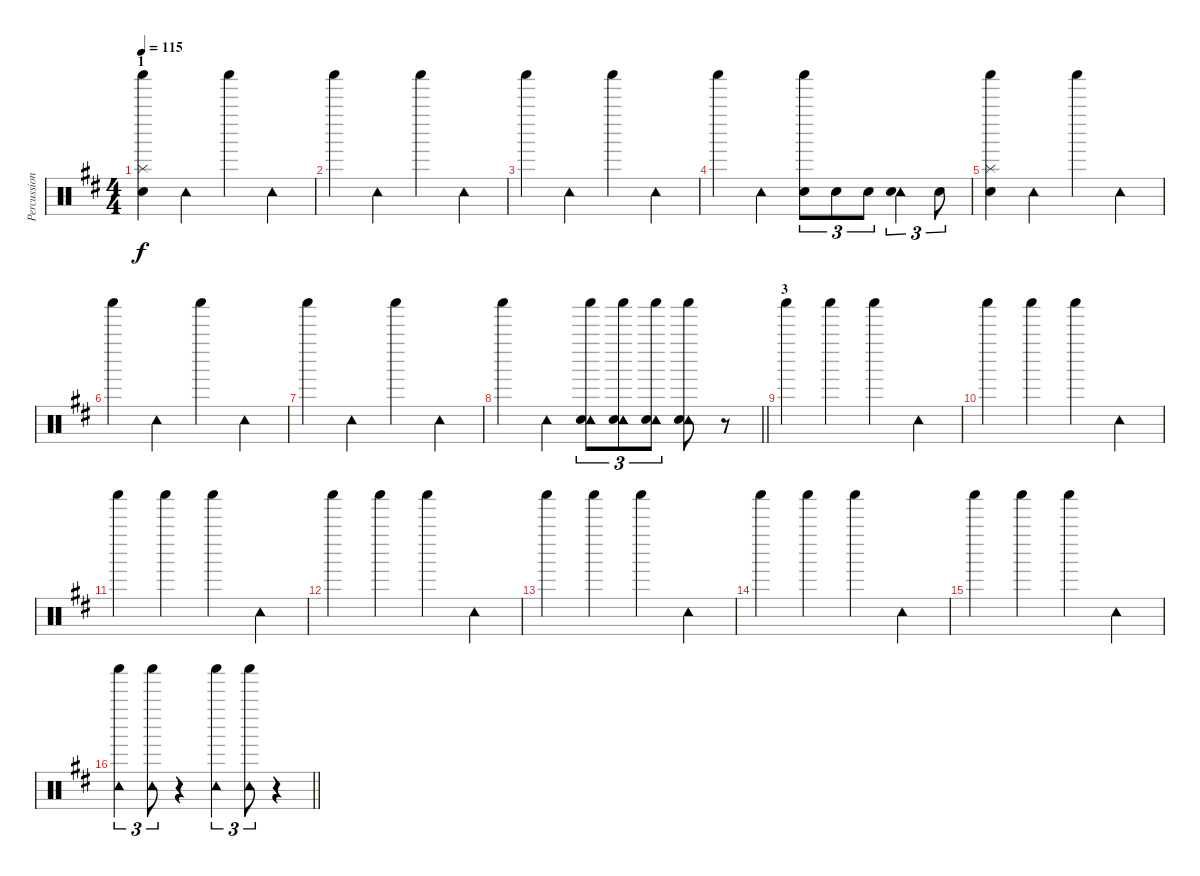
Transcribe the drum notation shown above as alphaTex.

\track ("Percussion" "Percussion") {instrument percussion}
\staff {score}
\articulation defaults
\ts (4 4)
\section ("" "1")
\tempo 115
\clef neutral
\ks d
("Splash (hit)" "Shaker (hit)" "Snare (hit) 2").4{dy f} "Tambourine (hit)".4 "Shaker (hit)".4 "Tambourine (hit)".4 |
"Shaker (hit)".4 "Tambourine (hit)".4 "Shaker (hit)".4 "Tambourine (hit)".4 |
"Shaker (hit)".4 "Tambourine (hit)".4 "Shaker (hit)".4 "Tambourine (hit)".4 |
"Shaker (hit)".4 "Tambourine (hit)".4 ("Shaker (hit)" "Snare (hit) 2").8{tu (3 2)} "Snare (hit) 2".8{tu (3 2)} "Snare (hit) 2".8{tu (3 2)} ("Tambourine (hit)" "Snare (hit) 2").4{tu (3 2)} "Snare (hit) 2".8{tu (3 2)} |
("Splash (hit)" "Shaker (hit)" "Snare (hit) 2").4 "Tambourine (hit)".4 "Shaker (hit)".4 "Tambourine (hit)".4 |
"Shaker (hit)".4 "Tambourine (hit)".4 "Shaker (hit)".4 "Tambourine (hit)".4 |
"Shaker (hit)".4 "Tambourine (hit)".4 "Shaker (hit)".4 "Tambourine (hit)".4 |
\barLineRight lightlight "Shaker (hit)".4 "Tambourine (hit)".4
("Tambourine (hit)" "Shaker (hit)" "Snare (hit) 2").8{tu (3 2)} ("Tambourine (hit)" "Shaker (hit)" "Snare (hit) 2").8{tu (3 2)} ("Tambourine (hit)" "Shaker (hit)" "Snare (hit) 2").8{tu (3 2)} ("Tambourine (hit)" "Shaker (hit)" "Snare (hit) 2").8 r.8 |
\section ("" "3")
"Shaker (hit)".4 "Shaker (hit)".4 "Shaker (hit)".4 "Tambourine (hit)".4 |
"Shaker (hit)".4 "Shaker (hit)".4 "Shaker (hit)".4 "Tambourine (hit)".4 |
"Shaker (hit)".4 "Shaker (hit)".4 "Shaker (hit)".4 "Tambourine (hit)".4 |
"Shaker (hit)".4 "Shaker (hit)".4 "Shaker (hit)".4 "Tambourine (hit)".4 |
"Shaker (hit)".4 "Shaker (hit)".4 "Shaker (hit)".4 "Tambourine (hit)".4 |
"Shaker (hit)".4 "Shaker (hit)".4 "Shaker (hit)".4 "Tambourine (hit)".4 |
"Shaker (hit)".4 "Shaker (hit)".4 "Shaker (hit)".4 "Tambourine (hit)".4 |
\barLineRight lightlight
("Tambourine (hit)" "Shaker (hit)").4{tu (3 2)} ("Tambourine (hit)" "Shaker (hit)").8{tu (3 2)} r.4 ("Tambourine (hit)" "Shaker (hit)").4{tu (3 2)} ("Tambourine (hit)" "Shaker (hit)").8{tu (3 2)} r.4
